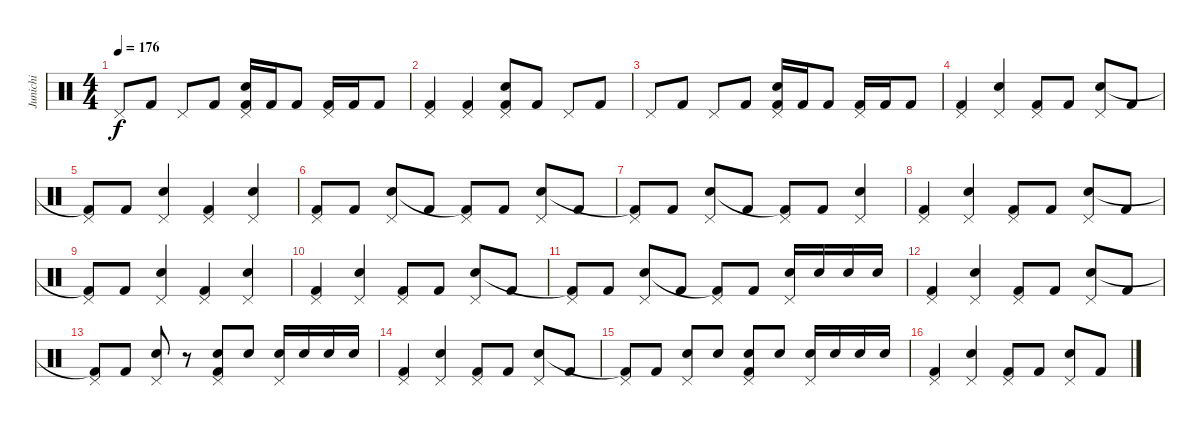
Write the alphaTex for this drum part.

\track ("Junichi" "Junichi") {instrument percussion}
\staff {score}
\articulation defaults
\ts (4 4)
\tempo 176
\clef neutral
\ks c "Pedal Hi-Hat (hit)".8{dy f} "Kick (hit) 2".8 "Pedal Hi-Hat (hit)".8 "Kick (hit) 2".8
("Pedal Hi-Hat (hit)" "Snare (hit) 2" "Kick (hit) 2").16 "Kick (hit) 2".16 "Kick (hit) 2".8 ("Pedal Hi-Hat (hit)" "Kick (hit) 2").16 "Kick (hit) 2".16 "Kick (hit) 2".8 |
("Pedal Hi-Hat (hit)" "Kick (hit) 2").4 ("Pedal Hi-Hat (hit)" "Kick (hit) 2").4 ("Pedal Hi-Hat (hit)" "Snare (hit) 2" "Kick (hit) 2").8 "Kick (hit) 2".8 "Pedal Hi-Hat (hit)".8 "Kick (hit) 2".8 |
"Pedal Hi-Hat (hit)".8 "Kick (hit) 2".8 "Pedal Hi-Hat (hit)".8 "Kick (hit) 2".8 ("Pedal Hi-Hat (hit)" "Snare (hit) 2" "Kick (hit) 2").16 "Kick (hit) 2".16 "Kick (hit) 2".8 ("Pedal Hi-Hat (hit)" "Kick (hit) 2").16 "Kick (hit) 2".16 "Kick (hit) 2".8 |
("Pedal Hi-Hat (hit)" "Kick (hit) 2").4 ("Pedal Hi-Hat (hit)" "Snare (hit) 2").4 ("Pedal Hi-Hat (hit)" "Kick (hit) 2").8 "Kick (hit) 2".8 ("Pedal Hi-Hat (hit)" "Snare (hit) 2").8 "Kick (hit) 2".8 |
("Pedal Hi-Hat (hit)" "Kick (hit) 2"{t}).8 "Kick (hit) 2".8 ("Pedal Hi-Hat (hit)" "Snare (hit) 2").4 ("Pedal Hi-Hat (hit)" "Kick (hit) 2").4 ("Pedal Hi-Hat (hit)" "Snare (hit) 2").4 |
("Pedal Hi-Hat (hit)" "Kick (hit) 2").8 "Kick (hit) 2".8 ("Pedal Hi-Hat (hit)" "Snare (hit) 2").8 "Kick (hit) 2".8 ("Pedal Hi-Hat (hit)" "Kick (hit) 2"{t}).8 "Kick (hit) 2".8 ("Pedal Hi-Hat (hit)" "Snare (hit) 2").8 "Kick (hit) 2".8 |
("Pedal Hi-Hat (hit)" "Kick (hit) 2"{t}).8 "Kick (hit) 2".8 ("Pedal Hi-Hat (hit)" "Snare (hit) 2").8 "Kick (hit) 2".8 ("Pedal Hi-Hat (hit)" "Kick (hit) 2"{t}).8 "Kick (hit) 2".8 ("Pedal Hi-Hat (hit)" "Snare (hit) 2").4 |
("Pedal Hi-Hat (hit)" "Kick (hit) 2").4 ("Pedal Hi-Hat (hit)" "Snare (hit) 2").4 ("Pedal Hi-Hat (hit)" "Kick (hit) 2").8 "Kick (hit) 2".8 ("Pedal Hi-Hat (hit)" "Snare (hit) 2").8 "Kick (hit) 2".8 |
("Pedal Hi-Hat (hit)" "Kick (hit) 2"{t}).8 "Kick (hit) 2".8 ("Pedal Hi-Hat (hit)" "Snare (hit) 2").4 ("Pedal Hi-Hat (hit)" "Kick (hit) 2").4 ("Pedal Hi-Hat (hit)" "Snare (hit) 2").4 |
("Pedal Hi-Hat (hit)" "Kick (hit) 2").4 ("Pedal Hi-Hat (hit)" "Snare (hit) 2").4 ("Pedal Hi-Hat (hit)" "Kick (hit) 2").8 "Kick (hit) 2".8 ("Pedal Hi-Hat (hit)" "Snare (hit) 2").8 "Kick (hit) 2".8 |
("Pedal Hi-Hat (hit)" "Kick (hit) 2"{t}).8 "Kick (hit) 2".8 ("Pedal Hi-Hat (hit)" "Snare (hit) 2").8 "Kick (hit) 2".8 ("Pedal Hi-Hat (hit)" "Kick (hit) 2"{t}).8 "Kick (hit) 2".8 ("Pedal Hi-Hat (hit)" "Snare (hit) 2").16 "Snare (hit) 2".16 "Snare (hit) 2".16 "Snare (hit) 2".16 |
("Pedal Hi-Hat (hit)" "Kick (hit) 2").4 ("Pedal Hi-Hat (hit)" "Snare (hit) 2").4 ("Pedal Hi-Hat (hit)" "Kick (hit) 2").8 "Kick (hit) 2".8 ("Pedal Hi-Hat (hit)" "Snare (hit) 2").8 "Kick (hit) 2".8 |
("Pedal Hi-Hat (hit)" "Kick (hit) 2"{t}).8 "Kick (hit) 2".8 ("Pedal Hi-Hat (hit)" "Snare (hit) 2").8 r.8 ("Pedal Hi-Hat (hit)" "Snare (hit) 2" "Kick (hit) 2").8 "Snare (hit) 2".8 ("Pedal Hi-Hat (hit)" "Snare (hit) 2").16 "Snare (hit) 2".16 "Snare (hit) 2".16 "Snare (hit) 2".16 |
("Pedal Hi-Hat (hit)" "Kick (hit) 2").4 ("Pedal Hi-Hat (hit)" "Snare (hit) 2").4 ("Pedal Hi-Hat (hit)" "Kick (hit) 2").8 "Kick (hit) 2".8 ("Pedal Hi-Hat (hit)" "Snare (hit) 2").8 "Kick (hit) 2".8 |
("Pedal Hi-Hat (hit)" "Kick (hit) 2"{t}).8 "Kick (hit) 2".8 ("Pedal Hi-Hat (hit)" "Snare (hit) 2").8 "Snare (hit) 2".8 ("Pedal Hi-Hat (hit)" "Snare (hit) 2" "Kick (hit) 2").8 "Snare (hit) 2".8 ("Pedal Hi-Hat (hit)" "Snare (hit) 2").16 "Snare (hit) 2".16 "Snare (hit) 2".16 "Snare (hit) 2".16 |
("Pedal Hi-Hat (hit)" "Kick (hit) 2").4 ("Pedal Hi-Hat (hit)" "Snare (hit) 2").4 ("Pedal Hi-Hat (hit)" "Kick (hit) 2").8 "Kick (hit) 2".8 ("Pedal Hi-Hat (hit)" "Snare (hit) 2").8 "Kick (hit) 2".8
